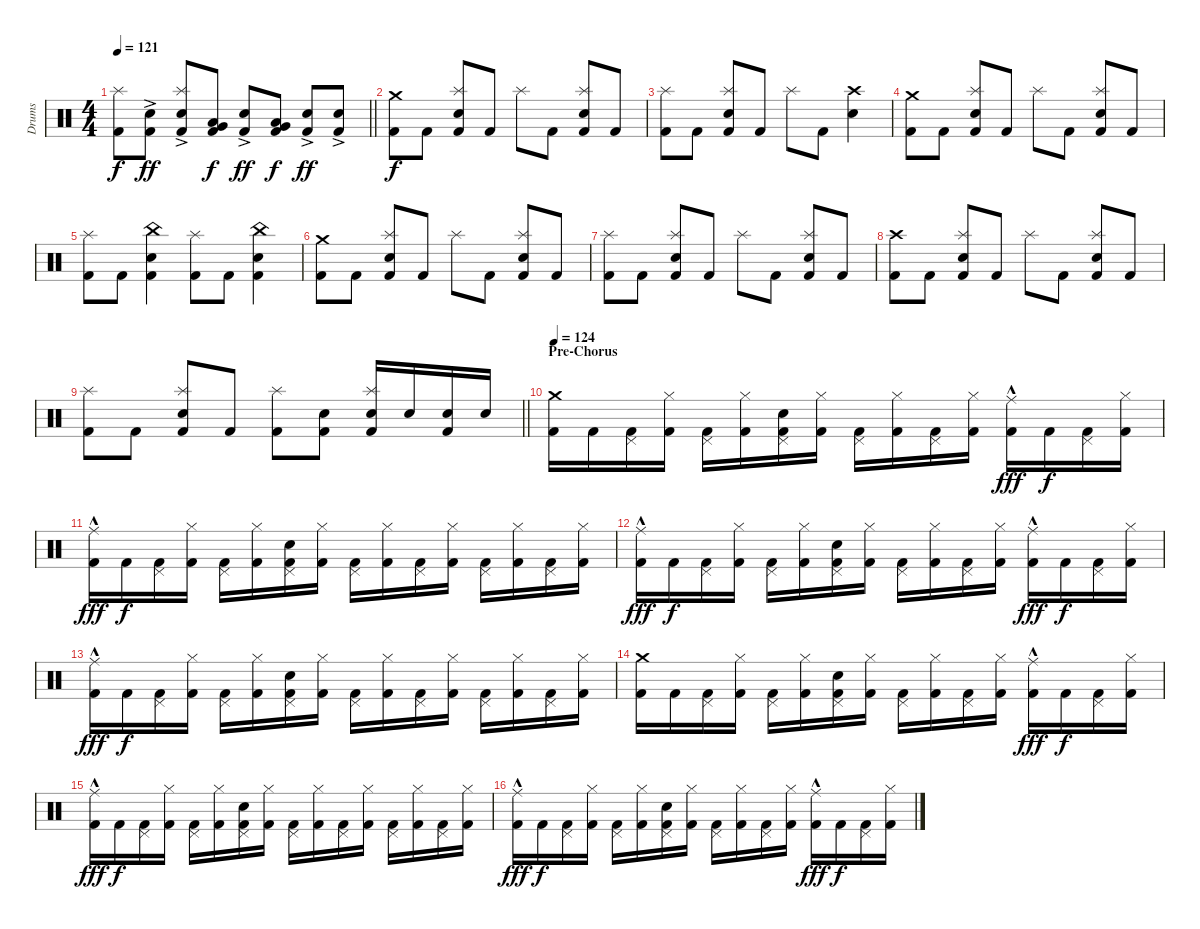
\track ("Drums" "Drums") {instrument percussion}
\staff {score}
\articulation defaults
\ts (4 4)
\tempo 121
\clef neutral
\barLineRight lightlight
\ks c
("Kick (hit) 2" "Splash (hit)").8{dy f} ("Kick (hit) 2" "Snare (hit) 2"{ac}).8{dy ff} ("Kick (hit) 2" "Snare (hit) 2"{ac} "Splash (hit)").8 ("Kick (hit) 2" "Low Tom (hit)" "Very Low Tom (hit)").8{dy f} ("Kick (hit) 2" "Snare (hit) 2"{ac}).8{dy ff} ("Kick (hit) 2" "Very Low Tom (hit)" "Low Floor Tom (hit)").8{dy f} ("Kick (hit) 2" "Snare (hit) 2"{ac}).8{dy ff} ("Kick (hit) 2" "Snare (hit) 2"{ac}).8 |
\section ("" "")
("Kick (hit) 2" "Crash medium (hit)").8{dy f} "Kick (hit) 2".8 ("Kick (hit) 2" "Snare (hit) 2" "Splash (hit)").8 "Kick (hit) 2".8 "Splash (hit)".8 "Kick (hit) 2".8 ("Kick (hit) 2" "Snare (hit) 2" "Splash (hit)").8 "Kick (hit) 2".8 |
("Kick (hit) 2" "Splash (hit)").8 "Kick (hit) 2".8 ("Kick (hit) 2" "Snare (hit) 2" "Splash (hit)").8 "Kick (hit) 2".8 "Splash (hit)".8 "Kick (hit) 2".8 ("Snare (hit) 2" "Crash high (hit)").4 |
("Kick (hit) 2" "Crash medium (hit)").8 "Kick (hit) 2".8 ("Kick (hit) 2" "Snare (hit) 2" "Splash (hit)").8 "Kick (hit) 2".8 "Splash (hit)".8 "Kick (hit) 2".8 ("Kick (hit) 2" "Snare (hit) 2" "Splash (hit)").8 "Kick (hit) 2".8 |
("Kick (hit) 2" "Splash (hit)").8 "Kick (hit) 2".8 ("Kick (hit) 2" "Snare (hit) 2" "China (hit)").4 ("Kick (hit) 2" "Splash (hit)").8 "Kick (hit) 2".8 ("Kick (hit) 2" "Snare (hit) 2" "China (hit)").4 |
("Kick (hit) 2" "Crash medium (hit)").8 "Kick (hit) 2".8 ("Kick (hit) 2" "Snare (hit) 2" "Splash (hit)").8 "Kick (hit) 2".8 "Splash (hit)".8 "Kick (hit) 2".8 ("Kick (hit) 2" "Snare (hit) 2" "Splash (hit)").8 "Kick (hit) 2".8 |
("Kick (hit) 2" "Splash (hit)").8 "Kick (hit) 2".8 ("Kick (hit) 2" "Snare (hit) 2" "Splash (hit)").8 "Kick (hit) 2".8 "Splash (hit)".8 "Kick (hit) 2".8 ("Kick (hit) 2" "Snare (hit) 2" "Splash (hit)").8 "Kick (hit) 2".8 |
("Kick (hit) 2" "Crash high (hit)").8 "Kick (hit) 2".8 ("Kick (hit) 2" "Snare (hit) 2" "Splash (hit)").8 "Kick (hit) 2".8 "Splash (hit)".8 "Kick (hit) 2".8 ("Kick (hit) 2" "Snare (hit) 2" "Splash (hit)").8 "Kick (hit) 2".8 |
\barLineRight lightlight
("Kick (hit) 2" "Splash (hit)").8 "Kick (hit) 2".8 ("Kick (hit) 2" "Snare (hit) 2" "Splash (hit)").8 "Kick (hit) 2".8 ("Kick (hit) 2" "Splash (hit)").8 ("Kick (hit) 2" "Snare (hit) 2").8 ("Kick (hit) 2" "Snare (hit) 2" "Splash (hit)").16 "Snare (hit) 2".16 ("Kick (hit) 2" "Snare (hit) 2").16 "Snare (hit) 2".16 |
\section ("" "Pre-Chorus")
\tempo 124
("Kick (hit) 2" "Crash medium (hit)").16 "Kick (hit) 2".16 ("Kick (hit) 2" "Pedal Hi-Hat (hit)").16 ("Kick (hit) 2" "Hi-Hat (closed)").16 ("Kick (hit) 2" "Pedal Hi-Hat (hit)").16 ("Kick (hit) 2" "Hi-Hat (closed)").16 ("Kick (hit) 2" "Snare (hit) 2" "Pedal Hi-Hat (hit)").16 ("Kick (hit) 2" "Hi-Hat (closed)").16 ("Kick (hit) 2" "Pedal Hi-Hat (hit)").16 ("Kick (hit) 2" "Hi-Hat (closed)").16 ("Kick (hit) 2" "Pedal Hi-Hat (hit)").16 ("Kick (hit) 2" "Hi-Hat (closed)").16 ("Kick (hit) 2" "Ride (middle)"{hac}).16{dy fff} "Kick (hit) 2".16{dy f} ("Kick (hit) 2" "Pedal Hi-Hat (hit)").16 ("Kick (hit) 2" "Hi-Hat (closed)").16 |
("Kick (hit) 2" "Ride (middle)"{hac}).16{dy fff} "Kick (hit) 2".16{dy f} ("Kick (hit) 2" "Pedal Hi-Hat (hit)").16 ("Kick (hit) 2" "Hi-Hat (closed)").16 ("Kick (hit) 2" "Pedal Hi-Hat (hit)").16 ("Kick (hit) 2" "Hi-Hat (closed)").16 ("Kick (hit) 2" "Snare (hit) 2" "Pedal Hi-Hat (hit)").16 ("Kick (hit) 2" "Hi-Hat (closed)").16 ("Kick (hit) 2" "Pedal Hi-Hat (hit)").16 ("Kick (hit) 2" "Hi-Hat (closed)").16 ("Kick (hit) 2" "Pedal Hi-Hat (hit)").16 ("Kick (hit) 2" "Hi-Hat (closed)").16 ("Kick (hit) 2" "Pedal Hi-Hat (hit)").16 ("Kick (hit) 2" "Hi-Hat (closed)").16 ("Kick (hit) 2" "Pedal Hi-Hat (hit)").16 ("Kick (hit) 2" "Hi-Hat (closed)").16 |
("Kick (hit) 2" "Ride (middle)"{hac}).16{dy fff} "Kick (hit) 2".16{dy f} ("Kick (hit) 2" "Pedal Hi-Hat (hit)").16 ("Kick (hit) 2" "Hi-Hat (closed)").16 ("Kick (hit) 2" "Pedal Hi-Hat (hit)").16 ("Kick (hit) 2" "Hi-Hat (closed)").16 ("Kick (hit) 2" "Snare (hit) 2" "Pedal Hi-Hat (hit)").16 ("Kick (hit) 2" "Hi-Hat (closed)").16 ("Kick (hit) 2" "Pedal Hi-Hat (hit)").16 ("Kick (hit) 2" "Hi-Hat (closed)").16 ("Kick (hit) 2" "Pedal Hi-Hat (hit)").16 ("Kick (hit) 2" "Hi-Hat (closed)").16 ("Kick (hit) 2" "Ride (middle)"{hac}).16{dy fff} "Kick (hit) 2".16{dy f} ("Kick (hit) 2" "Pedal Hi-Hat (hit)").16 ("Kick (hit) 2" "Hi-Hat (closed)").16 |
("Kick (hit) 2" "Ride (middle)"{hac}).16{dy fff} "Kick (hit) 2".16{dy f} ("Kick (hit) 2" "Pedal Hi-Hat (hit)").16 ("Kick (hit) 2" "Hi-Hat (closed)").16 ("Kick (hit) 2" "Pedal Hi-Hat (hit)").16 ("Kick (hit) 2" "Hi-Hat (closed)").16 ("Kick (hit) 2" "Snare (hit) 2" "Pedal Hi-Hat (hit)").16 ("Kick (hit) 2" "Hi-Hat (closed)").16 ("Kick (hit) 2" "Pedal Hi-Hat (hit)").16 ("Kick (hit) 2" "Hi-Hat (closed)").16 ("Kick (hit) 2" "Pedal Hi-Hat (hit)").16 ("Kick (hit) 2" "Hi-Hat (closed)").16 ("Kick (hit) 2" "Pedal Hi-Hat (hit)").16 ("Kick (hit) 2" "Hi-Hat (closed)").16 ("Kick (hit) 2" "Pedal Hi-Hat (hit)").16 ("Kick (hit) 2" "Hi-Hat (closed)").16 |
("Kick (hit) 2" "Crash medium (hit)").16 "Kick (hit) 2".16 ("Kick (hit) 2" "Pedal Hi-Hat (hit)").16 ("Kick (hit) 2" "Hi-Hat (closed)").16 ("Kick (hit) 2" "Pedal Hi-Hat (hit)").16 ("Kick (hit) 2" "Hi-Hat (closed)").16 ("Kick (hit) 2" "Snare (hit) 2" "Pedal Hi-Hat (hit)").16 ("Kick (hit) 2" "Hi-Hat (closed)").16 ("Kick (hit) 2" "Pedal Hi-Hat (hit)").16 ("Kick (hit) 2" "Hi-Hat (closed)").16 ("Kick (hit) 2" "Pedal Hi-Hat (hit)").16 ("Kick (hit) 2" "Hi-Hat (closed)").16 ("Kick (hit) 2" "Ride (middle)"{hac}).16{dy fff} "Kick (hit) 2".16{dy f} ("Kick (hit) 2" "Pedal Hi-Hat (hit)").16 ("Kick (hit) 2" "Hi-Hat (closed)").16 |
("Kick (hit) 2" "Ride (middle)"{hac}).16{dy fff} "Kick (hit) 2".16{dy f} ("Kick (hit) 2" "Pedal Hi-Hat (hit)").16 ("Kick (hit) 2" "Hi-Hat (closed)").16 ("Kick (hit) 2" "Pedal Hi-Hat (hit)").16 ("Kick (hit) 2" "Hi-Hat (closed)").16 ("Kick (hit) 2" "Snare (hit) 2" "Pedal Hi-Hat (hit)").16 ("Kick (hit) 2" "Hi-Hat (closed)").16 ("Kick (hit) 2" "Pedal Hi-Hat (hit)").16 ("Kick (hit) 2" "Hi-Hat (closed)").16 ("Kick (hit) 2" "Pedal Hi-Hat (hit)").16 ("Kick (hit) 2" "Hi-Hat (closed)").16 ("Kick (hit) 2" "Pedal Hi-Hat (hit)").16 ("Kick (hit) 2" "Hi-Hat (closed)").16 ("Kick (hit) 2" "Pedal Hi-Hat (hit)").16 ("Kick (hit) 2" "Hi-Hat (closed)").16 |
("Kick (hit) 2" "Ride (middle)"{hac}).16{dy fff} "Kick (hit) 2".16{dy f} ("Kick (hit) 2" "Pedal Hi-Hat (hit)").16 ("Kick (hit) 2" "Hi-Hat (closed)").16 ("Kick (hit) 2" "Pedal Hi-Hat (hit)").16 ("Kick (hit) 2" "Hi-Hat (closed)").16 ("Kick (hit) 2" "Snare (hit) 2" "Pedal Hi-Hat (hit)").16 ("Kick (hit) 2" "Hi-Hat (closed)").16 ("Kick (hit) 2" "Pedal Hi-Hat (hit)").16 ("Kick (hit) 2" "Hi-Hat (closed)").16 ("Kick (hit) 2" "Pedal Hi-Hat (hit)").16 ("Kick (hit) 2" "Hi-Hat (closed)").16 ("Kick (hit) 2" "Ride (middle)"{hac}).16{dy fff} "Kick (hit) 2".16{dy f} ("Kick (hit) 2" "Pedal Hi-Hat (hit)").16 ("Kick (hit) 2" "Hi-Hat (closed)").16
